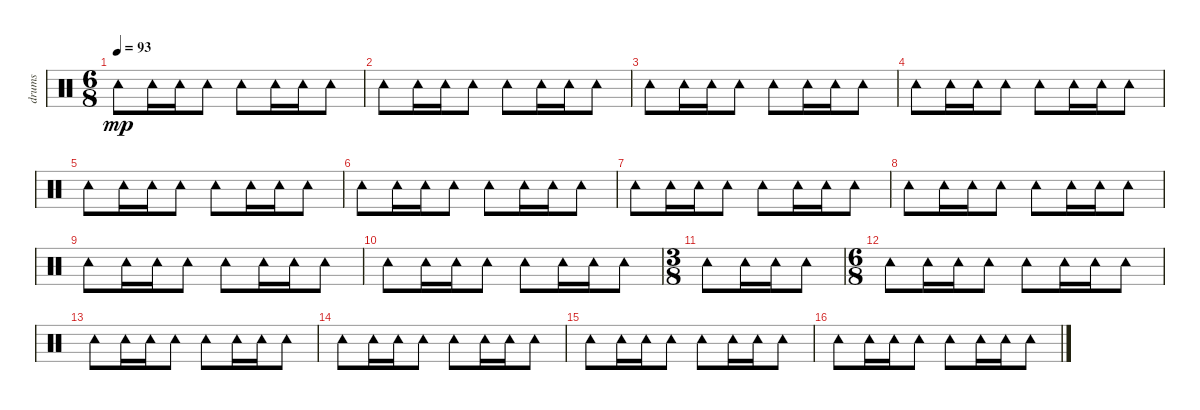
\track ("drums" "drums") {instrument percussion}
\staff {score}
\articulation defaults
\ts (6 8)
\tempo 93
\clef neutral
\ks c "Tambourine (hit)".8{dy mp} "Tambourine (hit)".16 "Tambourine (hit)".16 "Tambourine (hit)".8 "Tambourine (hit)".8 "Tambourine (hit)".16 "Tambourine (hit)".16 "Tambourine (hit)".8
|
"Tambourine (hit)".8 "Tambourine (hit)".16 "Tambourine (hit)".16 "Tambourine (hit)".8 "Tambourine (hit)".8 "Tambourine (hit)".16 "Tambourine (hit)".16 "Tambourine (hit)".8 |
"Tambourine (hit)".8 "Tambourine (hit)".16 "Tambourine (hit)".16 "Tambourine (hit)".8 "Tambourine (hit)".8 "Tambourine (hit)".16 "Tambourine (hit)".16 "Tambourine (hit)".8 |
"Tambourine (hit)".8 "Tambourine (hit)".16 "Tambourine (hit)".16 "Tambourine (hit)".8 "Tambourine (hit)".8 "Tambourine (hit)".16 "Tambourine (hit)".16 "Tambourine (hit)".8 |
"Tambourine (hit)".8 "Tambourine (hit)".16 "Tambourine (hit)".16 "Tambourine (hit)".8 "Tambourine (hit)".8 "Tambourine (hit)".16 "Tambourine (hit)".16 "Tambourine (hit)".8 |
"Tambourine (hit)".8 "Tambourine (hit)".16 "Tambourine (hit)".16 "Tambourine (hit)".8 "Tambourine (hit)".8 "Tambourine (hit)".16 "Tambourine (hit)".16 "Tambourine (hit)".8 |
"Tambourine (hit)".8 "Tambourine (hit)".16 "Tambourine (hit)".16 "Tambourine (hit)".8 "Tambourine (hit)".8 "Tambourine (hit)".16 "Tambourine (hit)".16 "Tambourine (hit)".8 |
"Tambourine (hit)".8 "Tambourine (hit)".16 "Tambourine (hit)".16 "Tambourine (hit)".8 "Tambourine (hit)".8 "Tambourine (hit)".16 "Tambourine (hit)".16 "Tambourine (hit)".8 |
"Tambourine (hit)".8 "Tambourine (hit)".16 "Tambourine (hit)".16 "Tambourine (hit)".8 "Tambourine (hit)".8 "Tambourine (hit)".16 "Tambourine (hit)".16 "Tambourine (hit)".8 |
"Tambourine (hit)".8 "Tambourine (hit)".16 "Tambourine (hit)".16 "Tambourine (hit)".8 "Tambourine (hit)".8 "Tambourine (hit)".16 "Tambourine (hit)".16 "Tambourine (hit)".8 |
\ts (3 8)
"Tambourine (hit)".8 "Tambourine (hit)".16 "Tambourine (hit)".16 "Tambourine (hit)".8 |
\ts (6 8)
"Tambourine (hit)".8 "Tambourine (hit)".16 "Tambourine (hit)".16 "Tambourine (hit)".8 "Tambourine (hit)".8 "Tambourine (hit)".16 "Tambourine (hit)".16 "Tambourine (hit)".8 |
"Tambourine (hit)".8 "Tambourine (hit)".16 "Tambourine (hit)".16 "Tambourine (hit)".8 "Tambourine (hit)".8 "Tambourine (hit)".16 "Tambourine (hit)".16 "Tambourine (hit)".8 |
"Tambourine (hit)".8 "Tambourine (hit)".16 "Tambourine (hit)".16 "Tambourine (hit)".8 "Tambourine (hit)".8 "Tambourine (hit)".16 "Tambourine (hit)".16 "Tambourine (hit)".8 |
"Tambourine (hit)".8 "Tambourine (hit)".16 "Tambourine (hit)".16 "Tambourine (hit)".8 "Tambourine (hit)".8 "Tambourine (hit)".16 "Tambourine (hit)".16 "Tambourine (hit)".8 |
"Tambourine (hit)".8 "Tambourine (hit)".16 "Tambourine (hit)".16 "Tambourine (hit)".8 "Tambourine (hit)".8 "Tambourine (hit)".16 "Tambourine (hit)".16 "Tambourine (hit)".8
